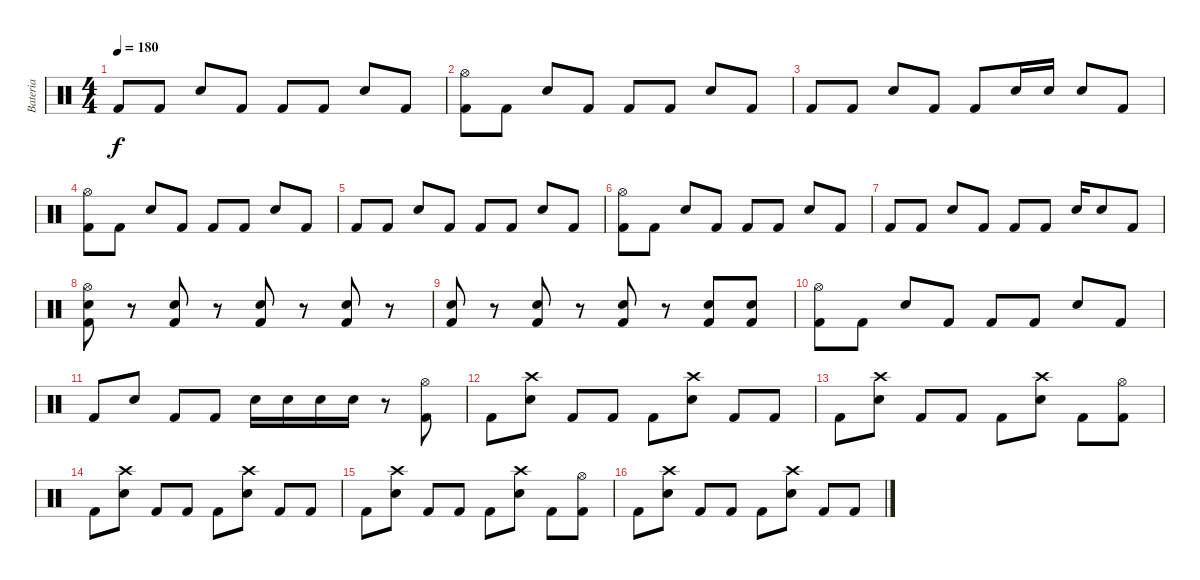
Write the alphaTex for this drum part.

\track ("Bateria" "Bateria") {instrument percussion}
\staff {score}
\articulation defaults
\ts (4 4)
\tempo 180
\clef neutral
\ks c "Kick (hit) 2".8{dy f} "Kick (hit) 2".8 "Electric Snare (hit)".8 "Kick (hit) 2".8 "Kick (hit) 2".8 "Kick (hit) 2".8 "Electric Snare (hit)".8 "Kick (hit) 2".8
|
("Kick (hit) 2" "Hi-Hat (open)").8 "Kick (hit) 2".8 "Electric Snare (hit)".8 "Kick (hit) 2".8 "Kick (hit) 2".8 "Kick (hit) 2".8 "Electric Snare (hit)".8 "Kick (hit) 2".8 |
"Kick (hit) 2".8 "Kick (hit) 2".8 "Electric Snare (hit)".8 "Kick (hit) 2".8 "Kick (hit) 2".8 "Electric Snare (hit)".16 "Electric Snare (hit)".16 "Electric Snare (hit)".8 "Kick (hit) 2".8 |
("Kick (hit) 2" "Hi-Hat (open)").8 "Kick (hit) 2".8 "Electric Snare (hit)".8 "Kick (hit) 2".8 "Kick (hit) 2".8 "Kick (hit) 2".8 "Electric Snare (hit)".8 "Kick (hit) 2".8 |
"Kick (hit) 2".8 "Kick (hit) 2".8 "Electric Snare (hit)".8 "Kick (hit) 2".8 "Kick (hit) 2".8 "Kick (hit) 2".8 "Electric Snare (hit)".8 "Kick (hit) 2".8 |
("Kick (hit) 2" "Hi-Hat (open)").8 "Kick (hit) 2".8 "Electric Snare (hit)".8 "Kick (hit) 2".8 "Kick (hit) 2".8 "Kick (hit) 2".8 "Electric Snare (hit)".8 "Kick (hit) 2".8 |
"Kick (hit) 2".8 "Kick (hit) 2".8 "Electric Snare (hit)".8 "Kick (hit) 2".8 "Kick (hit) 2".8 "Kick (hit) 2".8 "Electric Snare (hit)".16 "Electric Snare (hit)".8 "Kick (hit) 2".8 |
("Kick (hit) 2" "Electric Snare (hit)" "Hi-Hat (open)").8 r.8 ("Kick (hit) 2" "Electric Snare (hit)").8 r.8 ("Kick (hit) 2" "Electric Snare (hit)").8 r.8 ("Kick (hit) 2" "Electric Snare (hit)").8 r.8 |
("Kick (hit) 2" "Electric Snare (hit)").8 r.8 ("Kick (hit) 2" "Electric Snare (hit)").8 r.8 ("Kick (hit) 2" "Electric Snare (hit)").8 r.8 ("Kick (hit) 2" "Electric Snare (hit)").8 ("Kick (hit) 2" "Electric Snare (hit)").8 |
("Kick (hit) 2" "Hi-Hat (open)").8 "Kick (hit) 2".8 "Electric Snare (hit)".8 "Kick (hit) 2".8 "Kick (hit) 2".8 "Kick (hit) 2".8 "Electric Snare (hit)".8 "Kick (hit) 2".8 |
"Kick (hit) 2".8 "Electric Snare (hit)".8 "Kick (hit) 2".8 "Kick (hit) 2".8 "Electric Snare (hit)".16 "Electric Snare (hit)".16 "Electric Snare (hit)".16 "Electric Snare (hit)".16 r.8 ("Kick (hit) 2" "Hi-Hat (open)").8 |
"Kick (hit) 2".8 ("Electric Snare (hit)" "Crash high (hit)").8 "Kick (hit) 2".8 "Kick (hit) 2".8 "Kick (hit) 2".8 ("Electric Snare (hit)" "Crash high (hit)").8 "Kick (hit) 2".8 "Kick (hit) 2".8 |
"Kick (hit) 2".8 ("Electric Snare (hit)" "Crash high (hit)").8 "Kick (hit) 2".8 "Kick (hit) 2".8 "Kick (hit) 2".8 ("Electric Snare (hit)" "Crash high (hit)").8 "Kick (hit) 2".8 ("Kick (hit) 2" "Hi-Hat (open)").8 |
"Kick (hit) 2".8 ("Electric Snare (hit)" "Crash high (hit)").8 "Kick (hit) 2".8 "Kick (hit) 2".8 "Kick (hit) 2".8 ("Electric Snare (hit)" "Crash high (hit)").8 "Kick (hit) 2".8 "Kick (hit) 2".8 |
"Kick (hit) 2".8 ("Electric Snare (hit)" "Crash high (hit)").8 "Kick (hit) 2".8 "Kick (hit) 2".8 "Kick (hit) 2".8 ("Electric Snare (hit)" "Crash high (hit)").8 "Kick (hit) 2".8 ("Kick (hit) 2" "Hi-Hat (open)").8 |
"Kick (hit) 2".8 ("Electric Snare (hit)" "Crash high (hit)").8 "Kick (hit) 2".8 "Kick (hit) 2".8 "Kick (hit) 2".8 ("Electric Snare (hit)" "Crash high (hit)").8 "Kick (hit) 2".8 "Kick (hit) 2".8
